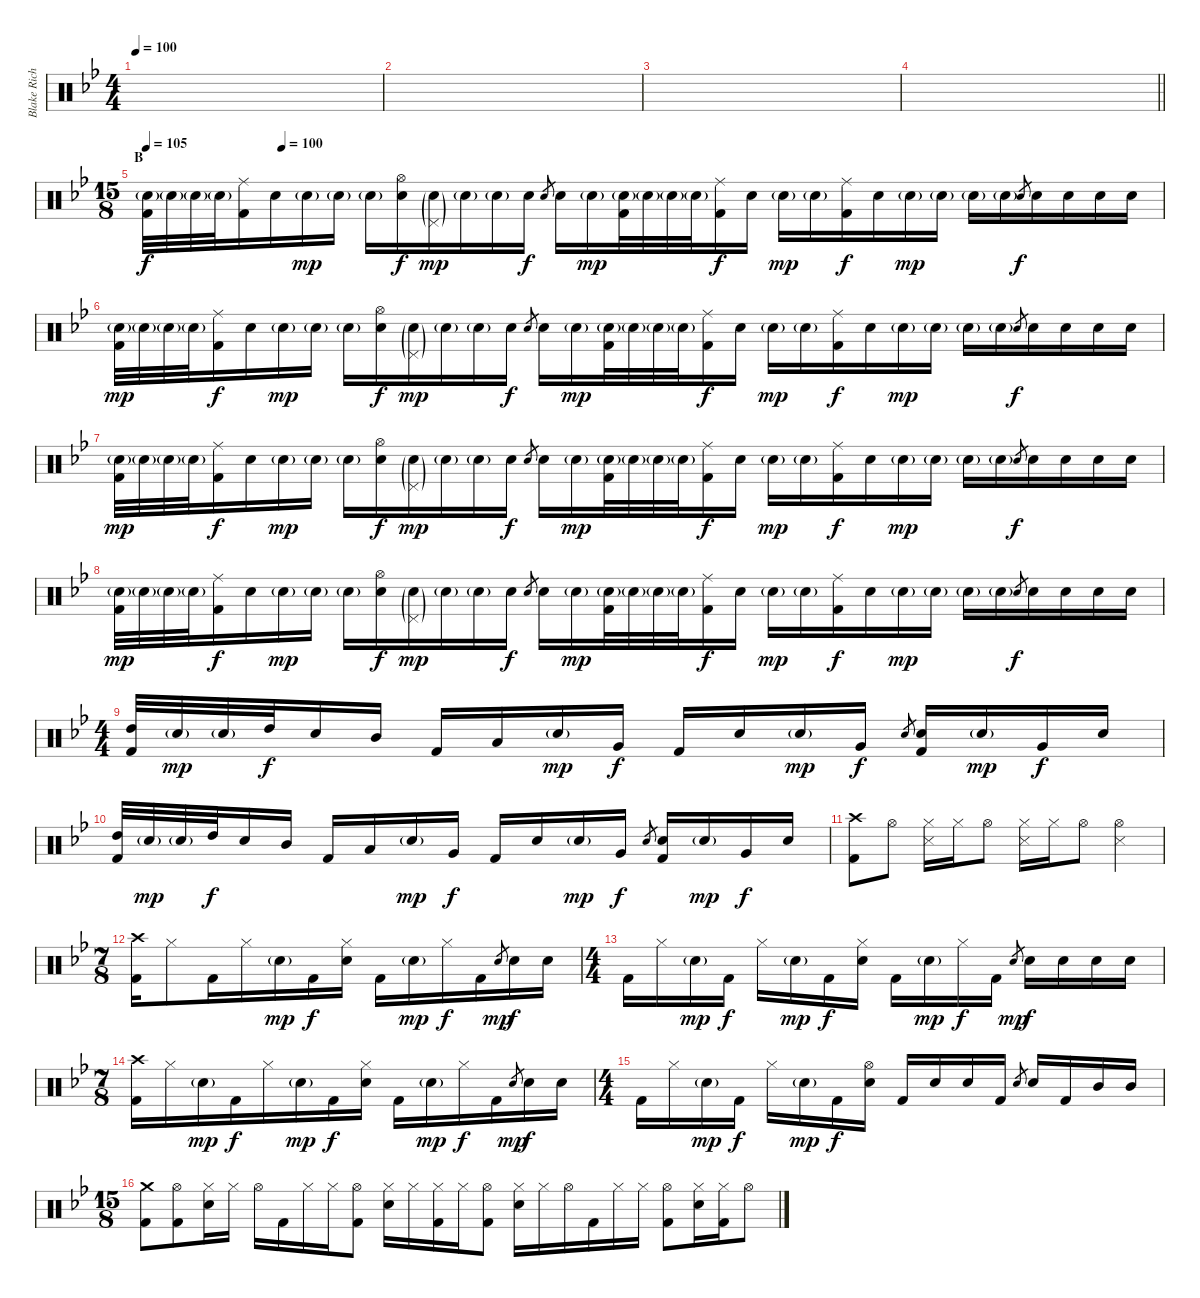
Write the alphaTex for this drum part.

\track ("Blake Richardson - Drums" "Blake Rich") {instrument percussion}
\staff {score}
\articulation defaults
\ts (4 4)
\tempo 100
\clef neutral
\ks gminor
|
|
|
\barLineRight lightlight
|
\ts (15 8)
\section ("" "B")
\tempo 105
\tempo (100 0.13333333333333333)
("Electric Snare (hit)"{g} "Kick (hit) 2").32 "Electric Snare (hit)"{g}.32 "Electric Snare (hit)"{g}.32 "Electric Snare (hit)"{g}.32 ("Ride (middle)" "Kick (hit) 2").16{dy f} "Electric Snare (hit)".16 "Electric Snare (hit)"{g}.16{dy mp} "Electric Snare (hit)"{g}.16 "Electric Snare (hit)"{g}.16 ("Hi-Hat (open)" "Electric Snare (hit)").16{dy f} ("Electric Snare (hit)"{g} "Pedal Hi-Hat (hit)"{g}).16{dy mp} "Electric Snare (hit)"{g}.16 "Electric Snare (hit)"{g}.16 "Electric Snare (hit)".16{dy f} "Electric Snare (hit)".8{gr} "Electric Snare (hit)".16 "Electric Snare (hit)"{g}.16{dy mp} ("Electric Snare (hit)"{g} "Kick (hit) 2").32 "Electric Snare (hit)"{g}.32 "Electric Snare (hit)"{g}.32 "Electric Snare (hit)"{g}.32 ("Ride (middle)" "Kick (hit) 2").16{dy f} "Electric Snare (hit)".16 "Electric Snare (hit)"{g}.16{dy mp} "Electric Snare (hit)"{g}.16 ("Ride (middle)" "Kick (hit) 2").16{dy f} "Electric Snare (hit)".16 "Electric Snare (hit)"{g}.16{dy mp} "Electric Snare (hit)"{g}.16 "Electric Snare (hit)"{g}.16 "Electric Snare (hit)"{g}.16 "Electric Snare (hit)".8{gr dy f} "Electric Snare (hit)".16 "Electric Snare (hit)".16 "Electric Snare (hit)".16 "Electric Snare (hit)".16 |
("Electric Snare (hit)"{g} "Kick (hit) 2").32{dy mp} "Electric Snare (hit)"{g}.32 "Electric Snare (hit)"{g}.32 "Electric Snare (hit)"{g}.32 ("Ride (middle)" "Kick (hit) 2").16{dy f} "Electric Snare (hit)".16 "Electric Snare (hit)"{g}.16{dy mp} "Electric Snare (hit)"{g}.16 "Electric Snare (hit)"{g}.16 ("Hi-Hat (open)" "Electric Snare (hit)").16{dy f} ("Electric Snare (hit)"{g} "Pedal Hi-Hat (hit)"{g}).16{dy mp} "Electric Snare (hit)"{g}.16 "Electric Snare (hit)"{g}.16 "Electric Snare (hit)".16{dy f} "Electric Snare (hit)".8{gr} "Electric Snare (hit)".16 "Electric Snare (hit)"{g}.16{dy mp} ("Electric Snare (hit)"{g} "Kick (hit) 2").32 "Electric Snare (hit)"{g}.32 "Electric Snare (hit)"{g}.32 "Electric Snare (hit)"{g}.32 ("Ride (middle)" "Kick (hit) 2").16{dy f} "Electric Snare (hit)".16 "Electric Snare (hit)"{g}.16{dy mp} "Electric Snare (hit)"{g}.16 ("Ride (middle)" "Kick (hit) 2").16{dy f} "Electric Snare (hit)".16 "Electric Snare (hit)"{g}.16{dy mp} "Electric Snare (hit)"{g}.16 "Electric Snare (hit)"{g}.16 "Electric Snare (hit)"{g}.16 "Electric Snare (hit)".8{gr dy f} "Electric Snare (hit)".16 "Electric Snare (hit)".16 "Electric Snare (hit)".16 "Electric Snare (hit)".16 |
("Electric Snare (hit)"{g} "Kick (hit) 2").32{dy mp} "Electric Snare (hit)"{g}.32 "Electric Snare (hit)"{g}.32 "Electric Snare (hit)"{g}.32 ("Ride (middle)" "Kick (hit) 2").16{dy f} "Electric Snare (hit)".16 "Electric Snare (hit)"{g}.16{dy mp} "Electric Snare (hit)"{g}.16 "Electric Snare (hit)"{g}.16 ("Hi-Hat (open)" "Electric Snare (hit)").16{dy f} ("Electric Snare (hit)"{g} "Pedal Hi-Hat (hit)"{g}).16{dy mp} "Electric Snare (hit)"{g}.16 "Electric Snare (hit)"{g}.16 "Electric Snare (hit)".16{dy f} "Electric Snare (hit)".8{gr} "Electric Snare (hit)".16 "Electric Snare (hit)"{g}.16{dy mp} ("Electric Snare (hit)"{g} "Kick (hit) 2").32 "Electric Snare (hit)"{g}.32 "Electric Snare (hit)"{g}.32 "Electric Snare (hit)"{g}.32 ("Ride (middle)" "Kick (hit) 2").16{dy f} "Electric Snare (hit)".16 "Electric Snare (hit)"{g}.16{dy mp} "Electric Snare (hit)"{g}.16 ("Ride (middle)" "Kick (hit) 2").16{dy f} "Electric Snare (hit)".16 "Electric Snare (hit)"{g}.16{dy mp} "Electric Snare (hit)"{g}.16 "Electric Snare (hit)"{g}.16 "Electric Snare (hit)"{g}.16 "Electric Snare (hit)".8{gr dy f} "Electric Snare (hit)".16 "Electric Snare (hit)".16 "Electric Snare (hit)".16 "Electric Snare (hit)".16 |
("Electric Snare (hit)"{g} "Kick (hit) 2").32{dy mp} "Electric Snare (hit)"{g}.32 "Electric Snare (hit)"{g}.32 "Electric Snare (hit)"{g}.32 ("Ride (middle)" "Kick (hit) 2").16{dy f} "Electric Snare (hit)".16 "Electric Snare (hit)"{g}.16{dy mp} "Electric Snare (hit)"{g}.16 "Electric Snare (hit)"{g}.16 ("Hi-Hat (open)" "Electric Snare (hit)").16{dy f} ("Electric Snare (hit)"{g} "Pedal Hi-Hat (hit)"{g}).16{dy mp} "Electric Snare (hit)"{g}.16 "Electric Snare (hit)"{g}.16 "Electric Snare (hit)".16{dy f} "Electric Snare (hit)".8{gr} "Electric Snare (hit)".16 "Electric Snare (hit)"{g}.16{dy mp} ("Electric Snare (hit)"{g} "Kick (hit) 2").32 "Electric Snare (hit)"{g}.32 "Electric Snare (hit)"{g}.32 "Electric Snare (hit)"{g}.32 ("Ride (middle)" "Kick (hit) 2").16{dy f} "Electric Snare (hit)".16 "Electric Snare (hit)"{g}.16{dy mp} "Electric Snare (hit)"{g}.16 ("Ride (middle)" "Kick (hit) 2").16{dy f} "Electric Snare (hit)".16 "Electric Snare (hit)"{g}.16{dy mp} "Electric Snare (hit)"{g}.16 "Electric Snare (hit)"{g}.16 "Electric Snare (hit)"{g}.16 "Electric Snare (hit)".8{gr dy f} "Electric Snare (hit)".16 "Electric Snare (hit)".16 "Electric Snare (hit)".16 "Electric Snare (hit)".16 |
\ts (4 4)
("High Tom (hit)" "Kick (hit) 2").32 "Electric Snare (hit)"{g}.32{dy mp} "Electric Snare (hit)"{g}.32 "High Tom (hit)".32{dy f} "Electric Snare (hit)".16 "Mid Tom (hit)".16 "Kick (hit) 2".16 "Low Tom (hit)".16 "Electric Snare (hit)"{g}.16{dy mp} "Very Low Tom (hit)".16{dy f} "Kick (hit) 2".16 "Electric Snare (hit)".16 "Electric Snare (hit)"{g}.16{dy mp} "Very Low Tom (hit)".16{dy f} "Electric Snare (hit)".8{gr} ("Electric Snare (hit)" "Kick (hit) 2").16 "Electric Snare (hit)"{g}.16{dy mp} "Very Low Tom (hit)".16{dy f} "Electric Snare (hit)".16 |
("High Tom (hit)" "Kick (hit) 2").32 "Electric Snare (hit)"{g}.32{dy mp} "Electric Snare (hit)"{g}.32 "High Tom (hit)".32{dy f} "Electric Snare (hit)".16 "Mid Tom (hit)".16 "Kick (hit) 2".16 "Low Tom (hit)".16 "Electric Snare (hit)"{g}.16{dy mp} "Very Low Tom (hit)".16{dy f} "Kick (hit) 2".16 "Electric Snare (hit)".16 "Electric Snare (hit)"{g}.16{dy mp} "Very Low Tom (hit)".16{dy f} "Electric Snare (hit)".8{gr} ("Electric Snare (hit)" "Kick (hit) 2").16 "Electric Snare (hit)"{g}.16{dy mp} "Very Low Tom (hit)".16{dy f} "Electric Snare (hit)".16 |
("Crash high (hit)" "Kick (hit) 2").8 "Hi-Hat (open)".8 ("Snare (side stick) 3" "Hi-Hat (closed)").16 "Hi-Hat (closed)".16 "Hi-Hat (open)".8 ("Snare (side stick) 3" "Hi-Hat (closed)").16 "Hi-Hat (closed)".16 "Hi-Hat (open)".8 ("Snare (side stick) 3" "Hi-Hat (open)").4 |
\ts (7 8)
("Kick (hit) 2" "Crash high (hit)").16 "Hi-Hat (closed)".8 "Kick (hit) 2".16 "Hi-Hat (closed)".16 "Electric Snare (hit)"{g}.16{dy mp} "Kick (hit) 2".16{dy f} ("Electric Snare (hit)" "Hi-Hat (closed)").16 "Kick (hit) 2".16 "Electric Snare (hit)"{g}.16{dy mp} "Hi-Hat (closed)".16{dy f} "Kick (hit) 2".16 "Electric Snare (hit)".8{gr dy mp} "Electric Snare (hit)".16{dy f} "Electric Snare (hit)".16 |
\ts (4 4)
"Kick (hit) 2".16 "Hi-Hat (closed)".16 "Electric Snare (hit)"{g}.16{dy mp} "Kick (hit) 2".16{dy f} "Hi-Hat (closed)".16 "Electric Snare (hit)"{g}.16{dy mp} "Kick (hit) 2".16{dy f} ("Electric Snare (hit)" "Hi-Hat (closed)").16 "Kick (hit) 2".16 "Electric Snare (hit)"{g}.16{dy mp} "Hi-Hat (closed)".16{dy f} "Kick (hit) 2".16 "Electric Snare (hit)".8{gr dy mp} "Electric Snare (hit)".16{dy f} "Electric Snare (hit)".16 "Electric Snare (hit)".16 "Electric Snare (hit)".16 |
\ts (7 8)
("Kick (hit) 2" "Crash high (hit)").16 "Hi-Hat (closed)".16 "Electric Snare (hit)"{g}.16{dy mp} "Kick (hit) 2".16{dy f} "Hi-Hat (closed)".16 "Electric Snare (hit)"{g}.16{dy mp} "Kick (hit) 2".16{dy f} ("Electric Snare (hit)" "Hi-Hat (closed)").16 "Kick (hit) 2".16 "Electric Snare (hit)"{g}.16{dy mp} "Hi-Hat (closed)".16{dy f} "Kick (hit) 2".16 "Electric Snare (hit)".8{gr dy mp} "Electric Snare (hit)".16{dy f} "Electric Snare (hit)".16 |
\ts (4 4)
"Kick (hit) 2".16 "Hi-Hat (closed)".16 "Electric Snare (hit)"{g}.16{dy mp} "Kick (hit) 2".16{dy f} "Hi-Hat (closed)".16 "Electric Snare (hit)"{g}.16{dy mp} "Kick (hit) 2".16{dy f} ("Electric Snare (hit)" "Hi-Hat (open)").16 "Kick (hit) 2".16 "Electric Snare (hit)".16 "Electric Snare (hit)".16 "Kick (hit) 2".16 "Electric Snare (hit)".8{gr} "Electric Snare (hit)".16 "Kick (hit) 2".16 "Mid Tom (hit)".16 "Mid Tom (hit)".16 |
\ts (15 8)
("Crash medium (hit)" "Kick (hit) 2").8 ("Hi-Hat (open)" "Kick (hit) 2").8 ("Electric Snare (hit)" "Hi-Hat (closed)").16 "Hi-Hat (closed)".16 "Hi-Hat (open)".16 "Kick (hit) 2".16 "Hi-Hat (closed)".16 "Hi-Hat (closed)".16 ("Hi-Hat (open)" "Kick (hit) 2").8 ("Hi-Hat (closed)" "Electric Snare (hit)").16 "Hi-Hat (closed)".16 ("Kick (hit) 2" "Hi-Hat (closed)").16 "Hi-Hat (closed)".16 ("Hi-Hat (open)" "Kick (hit) 2").8 ("Electric Snare (hit)" "Hi-Hat (closed)").16 "Hi-Hat (closed)".16 "Hi-Hat (open)".16 "Kick (hit) 2".16 "Hi-Hat (closed)".16 "Hi-Hat (closed)".16 ("Hi-Hat (open)" "Kick (hit) 2").8 ("Electric Snare (hit)" "Hi-Hat (closed)").16 ("Kick (hit) 2" "Hi-Hat (closed)").16 "Hi-Hat (open)".8
